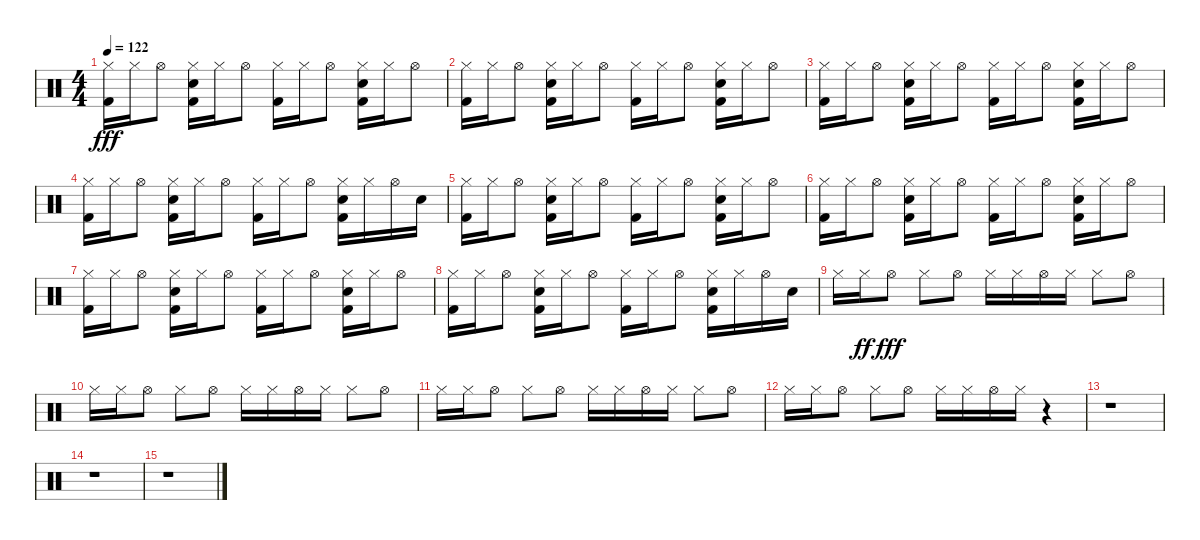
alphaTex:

\track "" {instrument percussion}
\staff {score}
\articulation defaults
\ts (4 4)
\tempo 122
\clef neutral
\ks c
("Kick (hit) 2" "Hi-Hat (closed)").16{dy fff} "Hi-Hat (closed)".16 "Hi-Hat (open)".8 ("Kick (hit) 2" "Snare (hit) 2" "Hi-Hat (closed)").16 "Hi-Hat (closed)".16 "Hi-Hat (open)".8 ("Kick (hit) 2" "Hi-Hat (closed)").16 "Hi-Hat (closed)".16 "Hi-Hat (open)".8 ("Kick (hit) 2" "Snare (hit) 2" "Hi-Hat (closed)").16 "Hi-Hat (closed)".16 "Hi-Hat (open)".8 |
("Kick (hit) 2" "Hi-Hat (closed)").16 "Hi-Hat (closed)".16 "Hi-Hat (open)".8 ("Kick (hit) 2" "Snare (hit) 2" "Hi-Hat (closed)").16 "Hi-Hat (closed)".16 "Hi-Hat (open)".8 ("Kick (hit) 2" "Hi-Hat (closed)").16 "Hi-Hat (closed)".16 "Hi-Hat (open)".8 ("Kick (hit) 2" "Snare (hit) 2" "Hi-Hat (closed)").16 "Hi-Hat (closed)".16 "Hi-Hat (open)".8 |
("Kick (hit) 2" "Hi-Hat (closed)").16 "Hi-Hat (closed)".16 "Hi-Hat (open)".8 ("Kick (hit) 2" "Snare (hit) 2" "Hi-Hat (closed)").16 "Hi-Hat (closed)".16 "Hi-Hat (open)".8 ("Kick (hit) 2" "Hi-Hat (closed)").16 "Hi-Hat (closed)".16 "Hi-Hat (open)".8 ("Kick (hit) 2" "Snare (hit) 2" "Hi-Hat (closed)").16 "Hi-Hat (closed)".16 "Hi-Hat (open)".8 |
("Kick (hit) 2" "Hi-Hat (closed)").16 "Hi-Hat (closed)".16 "Hi-Hat (open)".8 ("Kick (hit) 2" "Snare (hit) 2" "Hi-Hat (closed)").16 "Hi-Hat (closed)".16 "Hi-Hat (open)".8 ("Kick (hit) 2" "Hi-Hat (closed)").16 "Hi-Hat (closed)".16 "Hi-Hat (open)".8 ("Kick (hit) 2" "Snare (hit) 2" "Hi-Hat (closed)").16 "Hi-Hat (closed)".16 "Hi-Hat (open)".16 "Snare (hit) 2".16 |
("Kick (hit) 2" "Hi-Hat (closed)").16 "Hi-Hat (closed)".16 "Hi-Hat (open)".8 ("Kick (hit) 2" "Snare (hit) 2" "Hi-Hat (closed)").16 "Hi-Hat (closed)".16 "Hi-Hat (open)".8 ("Kick (hit) 2" "Hi-Hat (closed)").16 "Hi-Hat (closed)".16 "Hi-Hat (open)".8 ("Kick (hit) 2" "Snare (hit) 2" "Hi-Hat (closed)").16 "Hi-Hat (closed)".16 "Hi-Hat (open)".8 |
("Kick (hit) 2" "Hi-Hat (closed)").16 "Hi-Hat (closed)".16 "Hi-Hat (open)".8 ("Kick (hit) 2" "Snare (hit) 2" "Hi-Hat (closed)").16 "Hi-Hat (closed)".16 "Hi-Hat (open)".8 ("Kick (hit) 2" "Hi-Hat (closed)").16 "Hi-Hat (closed)".16 "Hi-Hat (open)".8 ("Kick (hit) 2" "Snare (hit) 2" "Hi-Hat (closed)").16 "Hi-Hat (closed)".16 "Hi-Hat (open)".8 |
("Kick (hit) 2" "Hi-Hat (closed)").16 "Hi-Hat (closed)".16 "Hi-Hat (open)".8 ("Kick (hit) 2" "Snare (hit) 2" "Hi-Hat (closed)").16 "Hi-Hat (closed)".16 "Hi-Hat (open)".8 ("Kick (hit) 2" "Hi-Hat (closed)").16 "Hi-Hat (closed)".16 "Hi-Hat (open)".8 ("Kick (hit) 2" "Snare (hit) 2" "Hi-Hat (closed)").16 "Hi-Hat (closed)".16 "Hi-Hat (open)".8 |
("Kick (hit) 2" "Hi-Hat (closed)").16 "Hi-Hat (closed)".16 "Hi-Hat (open)".8 ("Kick (hit) 2" "Snare (hit) 2" "Hi-Hat (closed)").16 "Hi-Hat (closed)".16 "Hi-Hat (open)".8 ("Kick (hit) 2" "Hi-Hat (closed)").16 "Hi-Hat (closed)".16 "Hi-Hat (open)".8 ("Kick (hit) 2" "Snare (hit) 2" "Hi-Hat (closed)").16 "Hi-Hat (closed)".16 "Hi-Hat (open)".16 "Snare (hit) 2".16 |
"Hi-Hat (closed)".16 "Hi-Hat (closed)".16{dy ff} "Hi-Hat (open)".8{dy fff} "Hi-Hat (closed)".8 "Hi-Hat (open)".8 "Hi-Hat (closed)".16 "Hi-Hat (closed)".16 "Hi-Hat (open)".16 "Hi-Hat (closed)".16 "Hi-Hat (closed)".8 "Hi-Hat (open)".8 |
"Hi-Hat (closed)".16 "Hi-Hat (closed)".16 "Hi-Hat (open)".8 "Hi-Hat (closed)".8 "Hi-Hat (open)".8 "Hi-Hat (closed)".16 "Hi-Hat (closed)".16 "Hi-Hat (open)".16 "Hi-Hat (closed)".16 "Hi-Hat (closed)".8 "Hi-Hat (open)".8 |
"Hi-Hat (closed)".16 "Hi-Hat (closed)".16 "Hi-Hat (open)".8 "Hi-Hat (closed)".8 "Hi-Hat (open)".8 "Hi-Hat (closed)".16 "Hi-Hat (closed)".16 "Hi-Hat (open)".16 "Hi-Hat (closed)".16 "Hi-Hat (closed)".8 "Hi-Hat (open)".8 |
"Hi-Hat (closed)".16 "Hi-Hat (closed)".16 "Hi-Hat (open)".8 "Hi-Hat (closed)".8 "Hi-Hat (open)".8 "Hi-Hat (closed)".16 "Hi-Hat (closed)".16 "Hi-Hat (open)".16 "Hi-Hat (closed)".16 r.4 |
r.1 |
r.1 |
r.1
